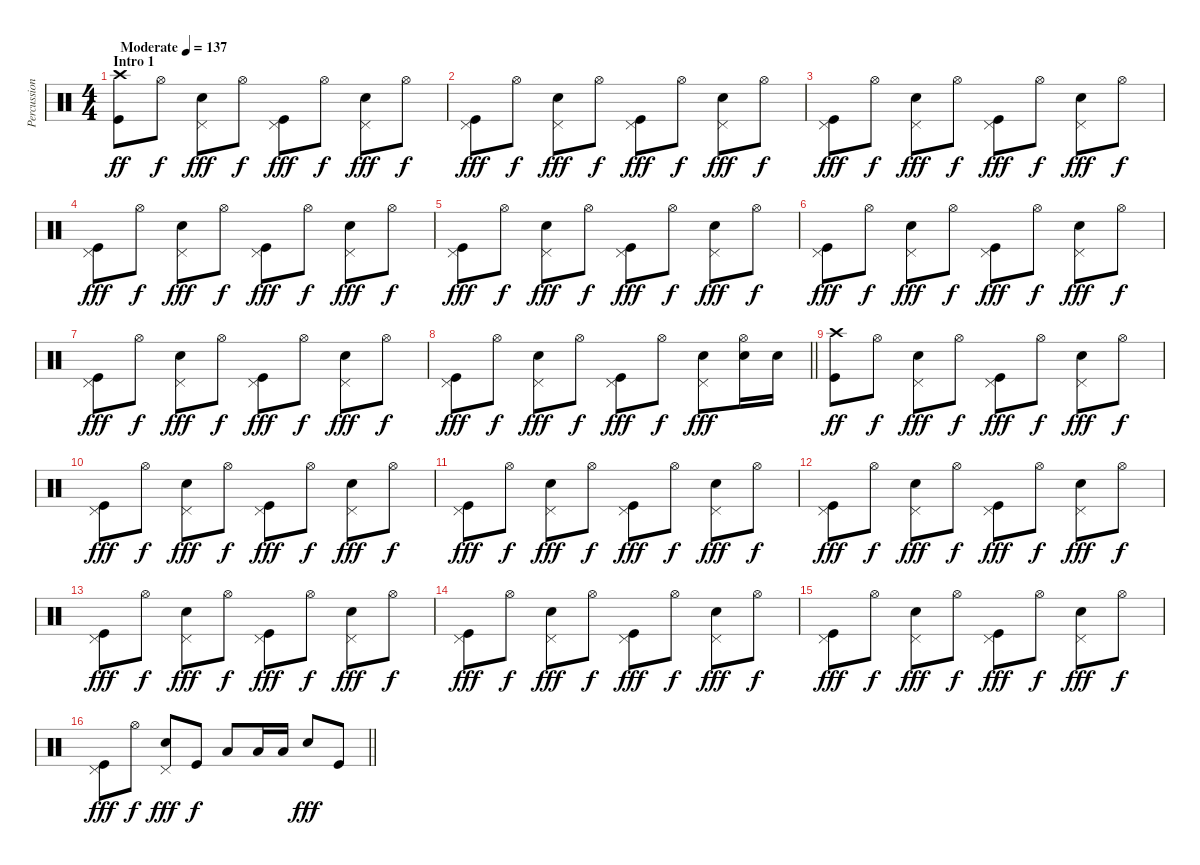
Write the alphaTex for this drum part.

\track ("Percussions" "Percussion") {instrument percussion}
\staff {score}
\articulation defaults
\ts (4 4)
\section ("" "Intro 1")
\tempo (137 "Moderate")
\clef neutral
\ks c
("Kick (hit)" "Crash high (hit)").8{dy ff} "Hi-Hat (open)".8{dy f} ("Electric Snare (hit)" "Pedal Hi-Hat (hit)").8{dy fff} "Hi-Hat (open)".8{dy f} ("Kick (hit)" "Pedal Hi-Hat (hit)").8{dy fff} "Hi-Hat (open)".8{dy f} ("Electric Snare (hit)" "Pedal Hi-Hat (hit)").8{dy fff} "Hi-Hat (open)".8{dy f} |
("Kick (hit)" "Pedal Hi-Hat (hit)").8{dy fff} "Hi-Hat (open)".8{dy f} ("Electric Snare (hit)" "Pedal Hi-Hat (hit)").8{dy fff} "Hi-Hat (open)".8{dy f} ("Kick (hit)" "Pedal Hi-Hat (hit)").8{dy fff} "Hi-Hat (open)".8{dy f} ("Electric Snare (hit)" "Pedal Hi-Hat (hit)").8{dy fff} "Hi-Hat (open)".8{dy f} |
("Kick (hit)" "Pedal Hi-Hat (hit)").8{dy fff} "Hi-Hat (open)".8{dy f} ("Electric Snare (hit)" "Pedal Hi-Hat (hit)").8{dy fff} "Hi-Hat (open)".8{dy f} ("Kick (hit)" "Pedal Hi-Hat (hit)").8{dy fff} "Hi-Hat (open)".8{dy f} ("Electric Snare (hit)" "Pedal Hi-Hat (hit)").8{dy fff} "Hi-Hat (open)".8{dy f} |
("Kick (hit)" "Pedal Hi-Hat (hit)").8{dy fff} "Hi-Hat (open)".8{dy f} ("Electric Snare (hit)" "Pedal Hi-Hat (hit)").8{dy fff} "Hi-Hat (open)".8{dy f} ("Kick (hit)" "Pedal Hi-Hat (hit)").8{dy fff} "Hi-Hat (open)".8{dy f} ("Electric Snare (hit)" "Pedal Hi-Hat (hit)").8{dy fff} "Hi-Hat (open)".8{dy f} |
("Kick (hit)" "Pedal Hi-Hat (hit)").8{dy fff} "Hi-Hat (open)".8{dy f} ("Electric Snare (hit)" "Pedal Hi-Hat (hit)").8{dy fff} "Hi-Hat (open)".8{dy f} ("Kick (hit)" "Pedal Hi-Hat (hit)").8{dy fff} "Hi-Hat (open)".8{dy f} ("Electric Snare (hit)" "Pedal Hi-Hat (hit)").8{dy fff} "Hi-Hat (open)".8{dy f} |
("Kick (hit)" "Pedal Hi-Hat (hit)").8{dy fff} "Hi-Hat (open)".8{dy f} ("Electric Snare (hit)" "Pedal Hi-Hat (hit)").8{dy fff} "Hi-Hat (open)".8{dy f} ("Kick (hit)" "Pedal Hi-Hat (hit)").8{dy fff} "Hi-Hat (open)".8{dy f} ("Electric Snare (hit)" "Pedal Hi-Hat (hit)").8{dy fff} "Hi-Hat (open)".8{dy f} |
("Kick (hit)" "Pedal Hi-Hat (hit)").8{dy fff} "Hi-Hat (open)".8{dy f} ("Electric Snare (hit)" "Pedal Hi-Hat (hit)").8{dy fff} "Hi-Hat (open)".8{dy f} ("Kick (hit)" "Pedal Hi-Hat (hit)").8{dy fff} "Hi-Hat (open)".8{dy f} ("Electric Snare (hit)" "Pedal Hi-Hat (hit)").8{dy fff} "Hi-Hat (open)".8{dy f} |
\barLineRight lightlight
("Kick (hit)" "Pedal Hi-Hat (hit)").8{dy fff} "Hi-Hat (open)".8{dy f} ("Electric Snare (hit)" "Pedal Hi-Hat (hit)").8{dy fff} "Hi-Hat (open)".8{dy f} ("Kick (hit)" "Pedal Hi-Hat (hit)").8{dy fff} "Hi-Hat (open)".8{dy f} ("Electric Snare (hit)" "Pedal Hi-Hat (hit)").8{dy fff} ("Electric Snare (hit)" "Hi-Hat (open)").16 "Electric Snare (hit)".16 |
("Kick (hit)" "Crash high (hit)").8{dy ff} "Hi-Hat (open)".8{dy f} ("Electric Snare (hit)" "Pedal Hi-Hat (hit)").8{dy fff} "Hi-Hat (open)".8{dy f} ("Kick (hit)" "Pedal Hi-Hat (hit)").8{dy fff} "Hi-Hat (open)".8{dy f} ("Electric Snare (hit)" "Pedal Hi-Hat (hit)").8{dy fff} "Hi-Hat (open)".8{dy f} |
("Kick (hit)" "Pedal Hi-Hat (hit)").8{dy fff} "Hi-Hat (open)".8{dy f} ("Electric Snare (hit)" "Pedal Hi-Hat (hit)").8{dy fff} "Hi-Hat (open)".8{dy f} ("Kick (hit)" "Pedal Hi-Hat (hit)").8{dy fff} "Hi-Hat (open)".8{dy f} ("Electric Snare (hit)" "Pedal Hi-Hat (hit)").8{dy fff} "Hi-Hat (open)".8{dy f} |
("Kick (hit)" "Pedal Hi-Hat (hit)").8{dy fff} "Hi-Hat (open)".8{dy f} ("Electric Snare (hit)" "Pedal Hi-Hat (hit)").8{dy fff} "Hi-Hat (open)".8{dy f} ("Kick (hit)" "Pedal Hi-Hat (hit)").8{dy fff} "Hi-Hat (open)".8{dy f} ("Electric Snare (hit)" "Pedal Hi-Hat (hit)").8{dy fff} "Hi-Hat (open)".8{dy f} |
("Kick (hit)" "Pedal Hi-Hat (hit)").8{dy fff} "Hi-Hat (open)".8{dy f} ("Electric Snare (hit)" "Pedal Hi-Hat (hit)").8{dy fff} "Hi-Hat (open)".8{dy f} ("Kick (hit)" "Pedal Hi-Hat (hit)").8{dy fff} "Hi-Hat (open)".8{dy f} ("Electric Snare (hit)" "Pedal Hi-Hat (hit)").8{dy fff} "Hi-Hat (open)".8{dy f} |
("Kick (hit)" "Pedal Hi-Hat (hit)").8{dy fff} "Hi-Hat (open)".8{dy f} ("Electric Snare (hit)" "Pedal Hi-Hat (hit)").8{dy fff} "Hi-Hat (open)".8{dy f} ("Kick (hit)" "Pedal Hi-Hat (hit)").8{dy fff} "Hi-Hat (open)".8{dy f} ("Electric Snare (hit)" "Pedal Hi-Hat (hit)").8{dy fff} "Hi-Hat (open)".8{dy f} |
("Kick (hit)" "Pedal Hi-Hat (hit)").8{dy fff} "Hi-Hat (open)".8{dy f} ("Electric Snare (hit)" "Pedal Hi-Hat (hit)").8{dy fff} "Hi-Hat (open)".8{dy f} ("Kick (hit)" "Pedal Hi-Hat (hit)").8{dy fff} "Hi-Hat (open)".8{dy f} ("Electric Snare (hit)" "Pedal Hi-Hat (hit)").8{dy fff} "Hi-Hat (open)".8{dy f} |
("Kick (hit)" "Pedal Hi-Hat (hit)").8{dy fff} "Hi-Hat (open)".8{dy f} ("Electric Snare (hit)" "Pedal Hi-Hat (hit)").8{dy fff} "Hi-Hat (open)".8{dy f} ("Kick (hit)" "Pedal Hi-Hat (hit)").8{dy fff} "Hi-Hat (open)".8{dy f} ("Electric Snare (hit)" "Pedal Hi-Hat (hit)").8{dy fff} "Hi-Hat (open)".8{dy f} |
\barLineRight lightlight
("Kick (hit)" "Pedal Hi-Hat (hit)").8{dy fff} "Hi-Hat (open)".8{dy f} ("Electric Snare (hit)" "Pedal Hi-Hat (hit)").8{dy fff} "Kick (hit)".8{dy f} "Low Tom (hit)".8 "Low Tom (hit)".16 "Low Tom (hit)".16 "Electric Snare (hit)".8{dy fff} "Kick (hit)".8
